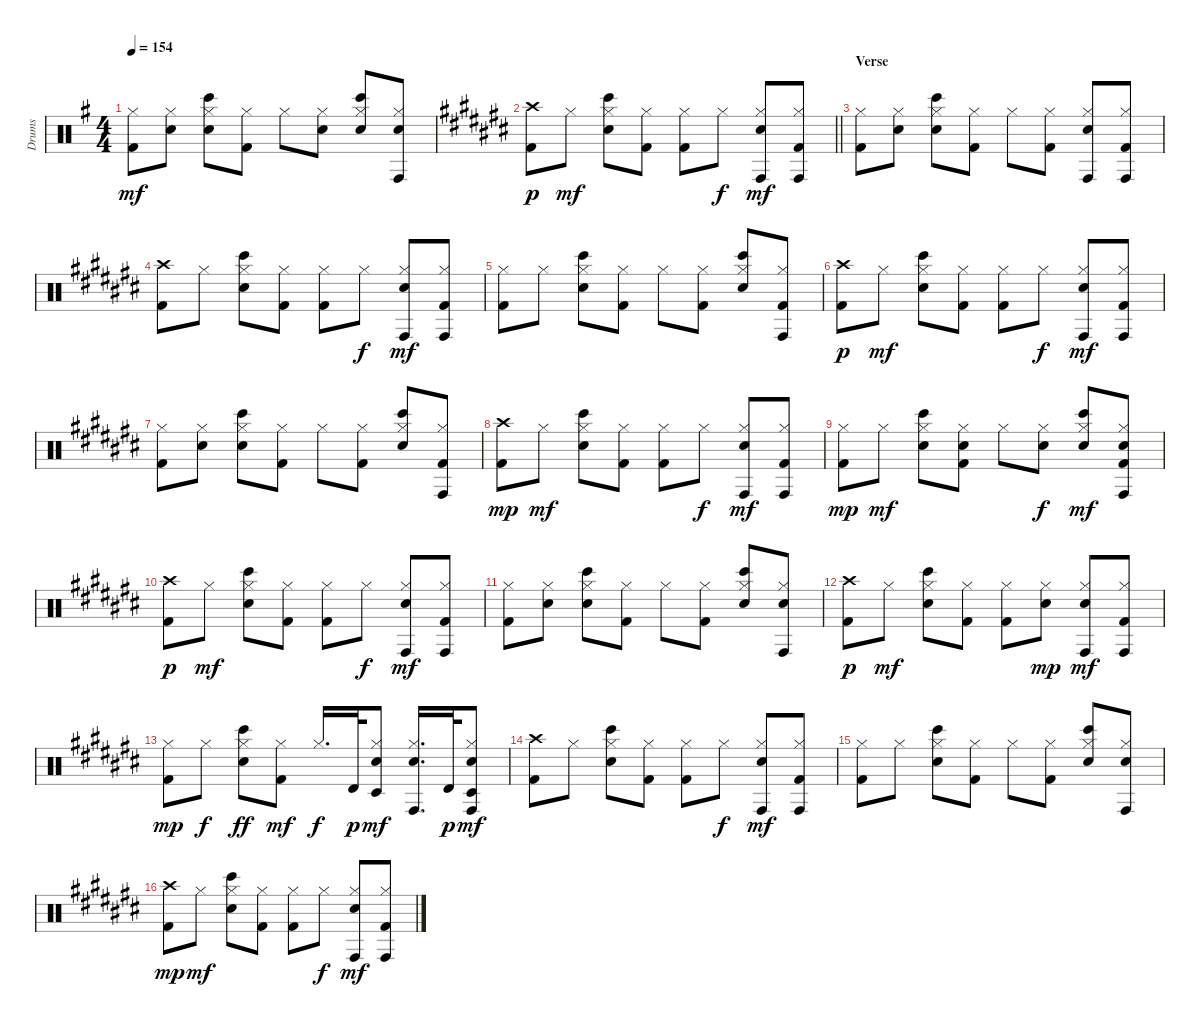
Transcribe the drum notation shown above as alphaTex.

\track ("Drums" "Drums") {instrument percussion}
\staff {score}
\articulation defaults
\ts (4 4)
\tempo 154
\clef neutral
\ks g
("Kick (hit) 2" "Hi-Hat (closed)").8{dy mf} ("Electric Snare (hit)" "Hi-Hat (closed)").8 ("Electric Snare (hit)" "Hi-Hat (closed)" "Bongo High (hit)").8 ("Kick (hit) 2" "Hi-Hat (closed)").8 "Hi-Hat (closed)".8 ("Electric Snare (hit)" "Hi-Hat (closed)").8 ("Electric Snare (hit)" "Hi-Hat (closed)" "Bongo High (hit)").8 ("Electric Snare (hit)" "Hi-Hat (closed)" "Conga high (hit)").8 |
\barLineRight lightlight
\ks a#minor
("Kick (hit) 2" "Crash high (hit)").8{dy p} "Hi-Hat (closed)".8{dy mf} ("Electric Snare (hit)" "Hi-Hat (closed)" "Bongo High (hit)").8 ("Kick (hit) 2" "Hi-Hat (closed)").8 ("Kick (hit) 2" "Hi-Hat (closed)").8 "Hi-Hat (closed)".8{dy f} ("Electric Snare (hit)" "Hi-Hat (closed)" "Conga high (hit)").8{dy mf} ("Kick (hit) 2" "Hi-Hat (closed)" "Conga high (hit)").8 |
\section ("" "Verse")
("Kick (hit) 2" "Hi-Hat (closed)").8 ("Electric Snare (hit)" "Hi-Hat (closed)").8 ("Electric Snare (hit)" "Hi-Hat (closed)" "Bongo High (hit)").8 ("Kick (hit) 2" "Hi-Hat (closed)").8 "Hi-Hat (closed)".8 ("Kick (hit) 2" "Hi-Hat (closed)").8 ("Electric Snare (hit)" "Hi-Hat (closed)" "Conga high (hit)").8 ("Kick (hit) 2" "Hi-Hat (closed)" "Conga high (hit)").8 |
("Kick (hit) 2" "Crash high (hit)").8 "Hi-Hat (closed)".8 ("Electric Snare (hit)" "Hi-Hat (closed)" "Bongo High (hit)").8 ("Kick (hit) 2" "Hi-Hat (closed)").8 ("Kick (hit) 2" "Hi-Hat (closed)").8 "Hi-Hat (closed)".8{dy f} ("Electric Snare (hit)" "Hi-Hat (closed)" "Conga high (hit)").8{dy mf} ("Kick (hit) 2" "Hi-Hat (closed)" "Conga high (hit)").8 |
("Kick (hit) 2" "Hi-Hat (closed)").8 "Hi-Hat (closed)".8 ("Electric Snare (hit)" "Hi-Hat (closed)" "Bongo High (hit)").8 ("Kick (hit) 2" "Hi-Hat (closed)").8 "Hi-Hat (closed)".8 ("Kick (hit) 2" "Hi-Hat (closed)").8 ("Electric Snare (hit)" "Hi-Hat (closed)" "Bongo High (hit)").8 ("Kick (hit) 2" "Hi-Hat (closed)" "Conga high (hit)").8 |
("Kick (hit) 2" "Crash high (hit)").8{dy p} "Hi-Hat (closed)".8{dy mf} ("Electric Snare (hit)" "Hi-Hat (closed)" "Bongo High (hit)").8 ("Kick (hit) 2" "Hi-Hat (closed)").8 ("Kick (hit) 2" "Hi-Hat (closed)").8 "Hi-Hat (closed)".8{dy f} ("Electric Snare (hit)" "Hi-Hat (closed)" "Conga high (hit)").8{dy mf} ("Kick (hit) 2" "Hi-Hat (closed)" "Conga high (hit)").8 |
("Kick (hit) 2" "Hi-Hat (closed)").8 ("Electric Snare (hit)" "Hi-Hat (closed)").8 ("Electric Snare (hit)" "Hi-Hat (closed)" "Bongo High (hit)").8 ("Kick (hit) 2" "Hi-Hat (closed)").8 "Hi-Hat (closed)".8 ("Kick (hit) 2" "Hi-Hat (closed)").8 ("Electric Snare (hit)" "Hi-Hat (closed)" "Bongo High (hit)").8 ("Kick (hit) 2" "Hi-Hat (closed)" "Conga high (hit)").8 |
("Kick (hit) 2" "Crash high (hit)").8{dy mp} "Hi-Hat (closed)".8{dy mf} ("Electric Snare (hit)" "Hi-Hat (closed)" "Bongo High (hit)").8 ("Kick (hit) 2" "Hi-Hat (closed)").8 ("Kick (hit) 2" "Hi-Hat (closed)").8 "Hi-Hat (closed)".8{dy f} ("Electric Snare (hit)" "Hi-Hat (closed)" "Conga high (hit)").8{dy mf} ("Kick (hit) 2" "Hi-Hat (closed)" "Conga high (hit)").8 |
("Kick (hit) 2" "Hi-Hat (closed)").8{dy mp} "Hi-Hat (closed)".8{dy mf} ("Electric Snare (hit)" "Hi-Hat (closed)" "Bongo High (hit)").8 ("Kick (hit) 2" "Electric Snare (hit)" "Hi-Hat (closed)").8 "Hi-Hat (closed)".8 ("Electric Snare (hit)" "Hi-Hat (closed)").8{dy f} ("Electric Snare (hit)" "Hi-Hat (closed)" "Bongo High (hit)").8{dy mf} ("Kick (hit) 2" "Electric Snare (hit)" "Hi-Hat (closed)" "Conga high (hit)").8 |
("Kick (hit) 2" "Crash high (hit)").8{dy p} "Hi-Hat (closed)".8{dy mf} ("Electric Snare (hit)" "Hi-Hat (closed)" "Bongo High (hit)").8 ("Kick (hit) 2" "Hi-Hat (closed)").8 ("Kick (hit) 2" "Hi-Hat (closed)").8 "Hi-Hat (closed)".8{dy f} ("Electric Snare (hit)" "Hi-Hat (closed)" "Conga high (hit)").8{dy mf} ("Kick (hit) 2" "Hi-Hat (closed)" "Conga high (hit)").8 |
("Kick (hit) 2" "Hi-Hat (closed)").8 ("Electric Snare (hit)" "Hi-Hat (closed)").8 ("Electric Snare (hit)" "Hi-Hat (closed)" "Bongo High (hit)").8 ("Kick (hit) 2" "Hi-Hat (closed)").8 "Hi-Hat (closed)".8 ("Kick (hit) 2" "Hi-Hat (closed)").8 ("Electric Snare (hit)" "Hi-Hat (closed)" "Bongo High (hit)").8 ("Electric Snare (hit)" "Hi-Hat (closed)" "Conga high (hit)").8 |
("Kick (hit) 2" "Crash high (hit)").8{dy p} "Hi-Hat (closed)".8{dy mf} ("Electric Snare (hit)" "Hi-Hat (closed)" "Bongo High (hit)").8 ("Kick (hit) 2" "Hi-Hat (closed)").8 ("Kick (hit) 2" "Hi-Hat (closed)").8 ("Electric Snare (hit)" "Hi-Hat (closed)").8{dy mp} ("Electric Snare (hit)" "Hi-Hat (closed)" "Conga high (hit)").8{dy mf} ("Kick (hit) 2" "Hi-Hat (closed)" "Conga high (hit)").8 |
("Kick (hit) 2" "Hi-Hat (closed)").8{dy mp} "Hi-Hat (closed)".8{dy f} ("Electric Snare (hit)" "Hi-Hat (closed)" "Bongo High (hit)").8{dy ff} ("Kick (hit) 2" "Hi-Hat (closed)").8{dy mf} "Hi-Hat (closed)".16{d dy f} "Timbale high (hit)".32{dy p} ("Electric Snare (hit)" "Hi-Hat (closed)" "Timbale low (hit)").8{dy mf} ("Electric Snare (hit)" "Hi-Hat (closed)" "Conga high (hit)").16{d} "Timbale high (hit)".32{dy p} ("Electric Snare (hit)" "Hi-Hat (closed)" "Conga high (hit)" "Timbale low (hit)").8{dy mf} |
("Kick (hit) 2" "Crash high (hit)").8 "Hi-Hat (closed)".8 ("Electric Snare (hit)" "Hi-Hat (closed)" "Bongo High (hit)").8 ("Kick (hit) 2" "Hi-Hat (closed)").8 ("Kick (hit) 2" "Hi-Hat (closed)").8 "Hi-Hat (closed)".8{dy f} ("Electric Snare (hit)" "Hi-Hat (closed)" "Conga high (hit)").8{dy mf} ("Kick (hit) 2" "Hi-Hat (closed)" "Conga high (hit)").8 |
("Kick (hit) 2" "Hi-Hat (closed)").8 "Hi-Hat (closed)".8 ("Electric Snare (hit)" "Hi-Hat (closed)" "Bongo High (hit)").8 ("Kick (hit) 2" "Hi-Hat (closed)").8 "Hi-Hat (closed)".8 ("Kick (hit) 2" "Hi-Hat (closed)").8 ("Electric Snare (hit)" "Hi-Hat (closed)" "Bongo High (hit)").8 ("Electric Snare (hit)" "Hi-Hat (closed)" "Conga high (hit)").8 |
("Kick (hit) 2" "Crash high (hit)").8{dy mp} "Hi-Hat (closed)".8{dy mf} ("Electric Snare (hit)" "Hi-Hat (closed)" "Bongo High (hit)").8 ("Kick (hit) 2" "Hi-Hat (closed)").8 ("Kick (hit) 2" "Hi-Hat (closed)").8 "Hi-Hat (closed)".8{dy f} ("Electric Snare (hit)" "Hi-Hat (closed)" "Conga high (hit)").8{dy mf} ("Kick (hit) 2" "Hi-Hat (closed)" "Conga high (hit)").8
